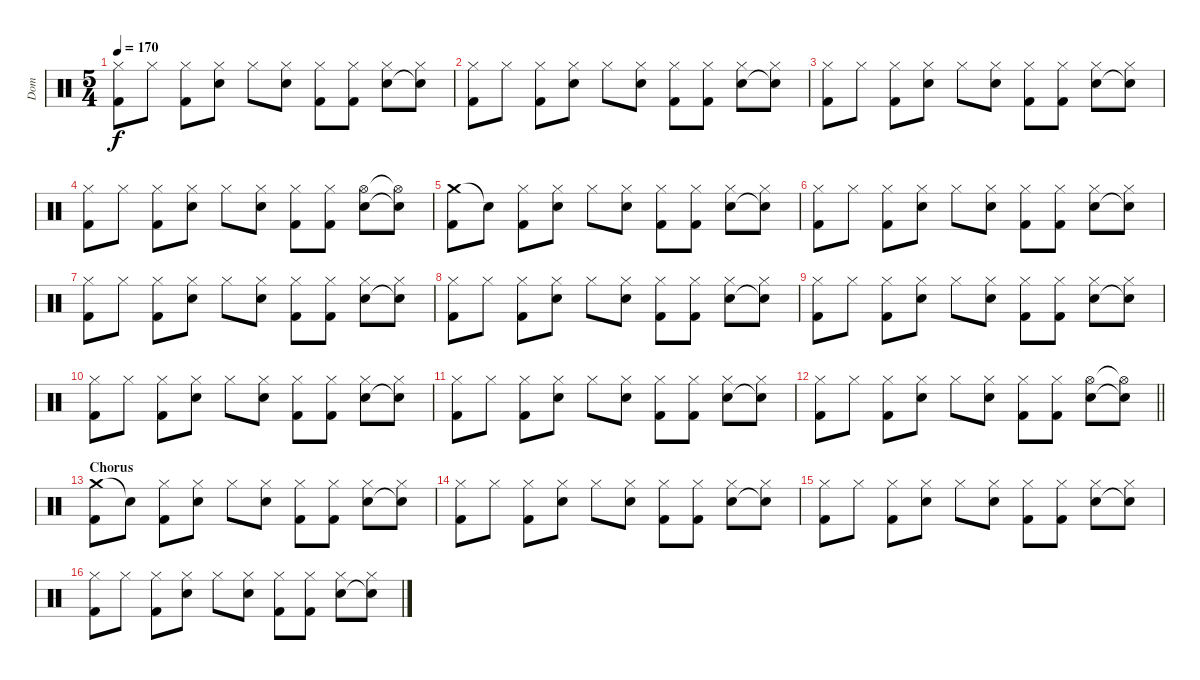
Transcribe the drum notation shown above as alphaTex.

\track ("Dom" "Dom") {instrument percussion}
\staff {score}
\articulation defaults
\ts (5 4)
\tempo 170
\clef neutral
\ks c
("Hi-Hat (closed)" "Kick (hit) 2").8{dy f} "Hi-Hat (closed)".8 ("Hi-Hat (closed)" "Kick (hit) 2").8 ("Hi-Hat (closed)" "Electric Snare (hit)").8 "Hi-Hat (closed)".8 ("Hi-Hat (closed)" "Electric Snare (hit)").8 ("Hi-Hat (closed)" "Kick (hit) 2").8 ("Hi-Hat (closed)" "Kick (hit) 2").8 ("Hi-Hat (closed)" "Electric Snare (hit)").8 ("Hi-Hat (closed)" "Snare (hit)"{t}).8 |
("Hi-Hat (closed)" "Kick (hit) 2").8 "Hi-Hat (closed)".8 ("Hi-Hat (closed)" "Kick (hit) 2").8 ("Hi-Hat (closed)" "Electric Snare (hit)").8 "Hi-Hat (closed)".8 ("Hi-Hat (closed)" "Electric Snare (hit)").8 ("Hi-Hat (closed)" "Kick (hit) 2").8 ("Hi-Hat (closed)" "Kick (hit) 2").8 ("Hi-Hat (closed)" "Electric Snare (hit)").8 ("Hi-Hat (closed)" "Snare (hit)"{t}).8 |
("Hi-Hat (closed)" "Kick (hit) 2").8 "Hi-Hat (closed)".8 ("Hi-Hat (closed)" "Kick (hit) 2").8 ("Hi-Hat (closed)" "Electric Snare (hit)").8 "Hi-Hat (closed)".8 ("Hi-Hat (closed)" "Electric Snare (hit)").8 ("Hi-Hat (closed)" "Kick (hit) 2").8 ("Hi-Hat (closed)" "Kick (hit) 2").8 ("Hi-Hat (closed)" "Electric Snare (hit)").8 ("Hi-Hat (closed)" "Snare (hit)"{t}).8 |
("Hi-Hat (closed)" "Kick (hit) 2").8 "Hi-Hat (closed)".8 ("Hi-Hat (closed)" "Kick (hit) 2").8 ("Hi-Hat (closed)" "Electric Snare (hit)").8 "Hi-Hat (closed)".8 ("Hi-Hat (closed)" "Electric Snare (hit)").8 ("Hi-Hat (closed)" "Kick (hit) 2").8 ("Hi-Hat (closed)" "Kick (hit) 2").8 ("Hi-Hat (open)" "Electric Snare (hit)").8 ("Hi-Hat (open)"{t} "Snare (hit)"{t}).8 |
("Crash medium (hit)" "Kick (hit) 2").8 "Snare (hit)"{t}.8 ("Hi-Hat (closed)" "Kick (hit) 2").8 ("Hi-Hat (closed)" "Electric Snare (hit)").8 "Hi-Hat (closed)".8 ("Hi-Hat (closed)" "Electric Snare (hit)").8 ("Hi-Hat (closed)" "Kick (hit) 2").8 ("Hi-Hat (closed)" "Kick (hit) 2").8 ("Hi-Hat (closed)" "Electric Snare (hit)").8 ("Hi-Hat (closed)" "Snare (hit)"{t}).8 |
("Hi-Hat (closed)" "Kick (hit) 2").8 "Hi-Hat (closed)".8 ("Hi-Hat (closed)" "Kick (hit) 2").8 ("Hi-Hat (closed)" "Electric Snare (hit)").8 "Hi-Hat (closed)".8 ("Hi-Hat (closed)" "Electric Snare (hit)").8 ("Hi-Hat (closed)" "Kick (hit) 2").8 ("Hi-Hat (closed)" "Kick (hit) 2").8 ("Hi-Hat (closed)" "Electric Snare (hit)").8 ("Hi-Hat (closed)" "Snare (hit)"{t}).8 |
("Hi-Hat (closed)" "Kick (hit) 2").8 "Hi-Hat (closed)".8 ("Hi-Hat (closed)" "Kick (hit) 2").8 ("Hi-Hat (closed)" "Electric Snare (hit)").8 "Hi-Hat (closed)".8 ("Hi-Hat (closed)" "Electric Snare (hit)").8 ("Hi-Hat (closed)" "Kick (hit) 2").8 ("Hi-Hat (closed)" "Kick (hit) 2").8 ("Hi-Hat (closed)" "Electric Snare (hit)").8 ("Hi-Hat (closed)" "Snare (hit)"{t}).8 |
("Hi-Hat (closed)" "Kick (hit) 2").8 "Hi-Hat (closed)".8 ("Hi-Hat (closed)" "Kick (hit) 2").8 ("Hi-Hat (closed)" "Electric Snare (hit)").8 "Hi-Hat (closed)".8 ("Hi-Hat (closed)" "Electric Snare (hit)").8 ("Hi-Hat (closed)" "Kick (hit) 2").8 ("Hi-Hat (closed)" "Kick (hit) 2").8 ("Hi-Hat (closed)" "Electric Snare (hit)").8 ("Hi-Hat (closed)" "Snare (hit)"{t}).8 |
("Hi-Hat (closed)" "Kick (hit) 2").8 "Hi-Hat (closed)".8 ("Hi-Hat (closed)" "Kick (hit) 2").8 ("Hi-Hat (closed)" "Electric Snare (hit)").8 "Hi-Hat (closed)".8 ("Hi-Hat (closed)" "Electric Snare (hit)").8 ("Hi-Hat (closed)" "Kick (hit) 2").8 ("Hi-Hat (closed)" "Kick (hit) 2").8 ("Hi-Hat (closed)" "Electric Snare (hit)").8 ("Hi-Hat (closed)" "Snare (hit)"{t}).8 |
("Hi-Hat (closed)" "Kick (hit) 2").8 "Hi-Hat (closed)".8 ("Hi-Hat (closed)" "Kick (hit) 2").8 ("Hi-Hat (closed)" "Electric Snare (hit)").8 "Hi-Hat (closed)".8 ("Hi-Hat (closed)" "Electric Snare (hit)").8 ("Hi-Hat (closed)" "Kick (hit) 2").8 ("Hi-Hat (closed)" "Kick (hit) 2").8 ("Hi-Hat (closed)" "Electric Snare (hit)").8 ("Hi-Hat (closed)" "Snare (hit)"{t}).8 |
("Hi-Hat (closed)" "Kick (hit) 2").8 "Hi-Hat (closed)".8 ("Hi-Hat (closed)" "Kick (hit) 2").8 ("Hi-Hat (closed)" "Electric Snare (hit)").8 "Hi-Hat (closed)".8 ("Hi-Hat (closed)" "Electric Snare (hit)").8 ("Hi-Hat (closed)" "Kick (hit) 2").8 ("Hi-Hat (closed)" "Kick (hit) 2").8 ("Hi-Hat (closed)" "Electric Snare (hit)").8 ("Hi-Hat (closed)" "Snare (hit)"{t}).8 |
\barLineRight lightlight
("Hi-Hat (closed)" "Kick (hit) 2").8 "Hi-Hat (closed)".8 ("Hi-Hat (closed)" "Kick (hit) 2").8 ("Hi-Hat (closed)" "Electric Snare (hit)").8 "Hi-Hat (closed)".8 ("Hi-Hat (closed)" "Electric Snare (hit)").8 ("Hi-Hat (closed)" "Kick (hit) 2").8 ("Hi-Hat (closed)" "Kick (hit) 2").8 ("Hi-Hat (open)" "Electric Snare (hit)").8 ("Hi-Hat (open)"{t} "Snare (hit)"{t}).8 |
\section ("" "Chorus")
("Crash medium (hit)" "Kick (hit) 2").8 "Snare (hit)"{t}.8 ("Hi-Hat (closed)" "Kick (hit) 2").8 ("Hi-Hat (closed)" "Electric Snare (hit)").8 "Hi-Hat (closed)".8 ("Hi-Hat (closed)" "Electric Snare (hit)").8 ("Hi-Hat (closed)" "Kick (hit) 2").8 ("Hi-Hat (closed)" "Kick (hit) 2").8 ("Hi-Hat (closed)" "Electric Snare (hit)").8 ("Hi-Hat (closed)" "Snare (hit)"{t}).8 |
("Hi-Hat (closed)" "Kick (hit) 2").8 "Hi-Hat (closed)".8 ("Hi-Hat (closed)" "Kick (hit) 2").8 ("Hi-Hat (closed)" "Electric Snare (hit)").8 "Hi-Hat (closed)".8 ("Hi-Hat (closed)" "Electric Snare (hit)").8 ("Hi-Hat (closed)" "Kick (hit) 2").8 ("Hi-Hat (closed)" "Kick (hit) 2").8 ("Hi-Hat (closed)" "Electric Snare (hit)").8 ("Hi-Hat (closed)" "Snare (hit)"{t}).8 |
("Hi-Hat (closed)" "Kick (hit) 2").8 "Hi-Hat (closed)".8 ("Hi-Hat (closed)" "Kick (hit) 2").8 ("Hi-Hat (closed)" "Electric Snare (hit)").8 "Hi-Hat (closed)".8 ("Hi-Hat (closed)" "Electric Snare (hit)").8 ("Hi-Hat (closed)" "Kick (hit) 2").8 ("Hi-Hat (closed)" "Kick (hit) 2").8 ("Hi-Hat (closed)" "Electric Snare (hit)").8 ("Hi-Hat (closed)" "Snare (hit)"{t}).8 |
("Hi-Hat (closed)" "Kick (hit) 2").8 "Hi-Hat (closed)".8 ("Hi-Hat (closed)" "Kick (hit) 2").8 ("Hi-Hat (closed)" "Electric Snare (hit)").8 "Hi-Hat (closed)".8 ("Hi-Hat (closed)" "Electric Snare (hit)").8 ("Hi-Hat (closed)" "Kick (hit) 2").8 ("Hi-Hat (closed)" "Kick (hit) 2").8 ("Hi-Hat (closed)" "Electric Snare (hit)").8 ("Hi-Hat (closed)" "Snare (hit)"{t}).8
